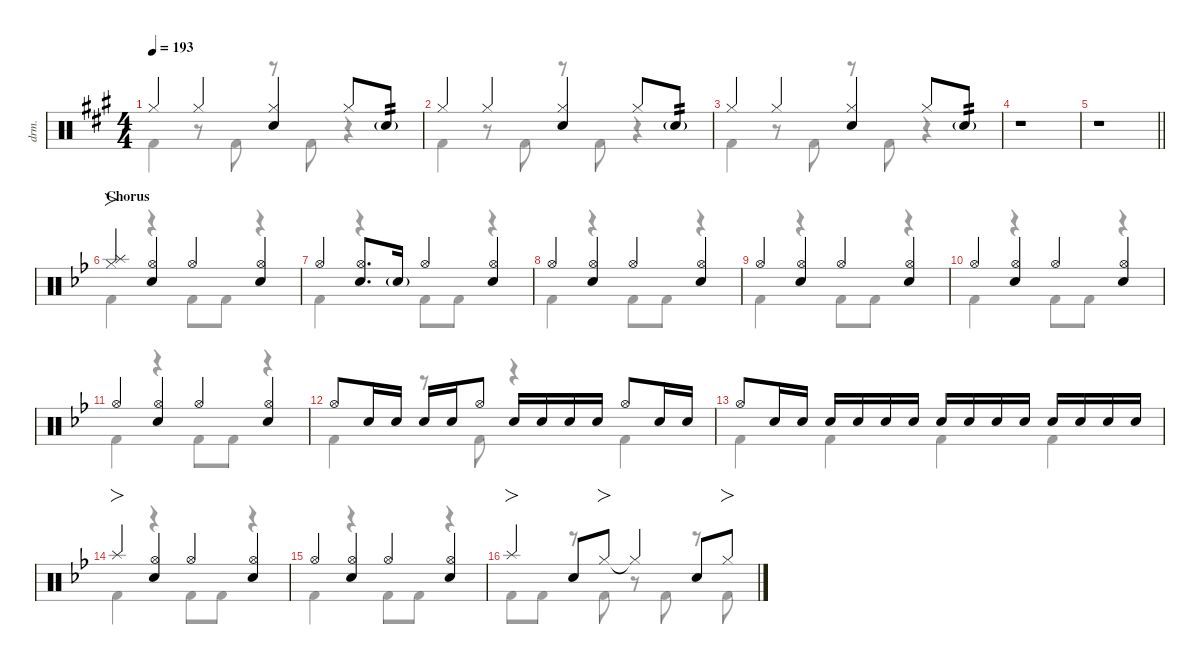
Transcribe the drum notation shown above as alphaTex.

\defaultSystemsLayout 4
\hideDynamics
\bracketExtendMode nobrackets
\track ("伊地知虹夏" "drm.") {instrument percussion}
\staff {score}
\articulation defaults
\voice
\ts (4 4)
\tempo 193
\clef neutral
\ks a "Hi-Hat (closed)"{acc forcenatural}.4{dy mf beam Up} "Hi-Hat (closed)"{acc forcenatural}.4{beam Up}
("Hi-Hat (closed)"{acc forcenatural} "Snare (hit) 2"{acc forcenatural}).4{beam Up} "Hi-Hat (closed)"{acc forcenatural}.8{beam Up} "Snare (hit) 2"{g acc forcenatural}.8{tp 2 beam Up} |
"Hi-Hat (closed)"{acc forcenatural}.4{beam Up} "Hi-Hat (closed)"{acc forcenatural}.4{beam Up} ("Hi-Hat (closed)"{acc forcenatural} "Snare (hit) 2"{acc forcenatural}).4{beam Up} "Hi-Hat (closed)"{acc forcenatural}.8{beam Up} "Snare (hit) 2"{g acc forcenatural}.8{tp 2 beam Up} |
"Hi-Hat (closed)"{acc forcenatural}.4{beam Up} "Hi-Hat (closed)"{acc forcenatural}.4{beam Up} ("Hi-Hat (closed)"{acc forcenatural} "Snare (hit) 2"{acc forcenatural}).4{beam Up} "Hi-Hat (closed)"{acc forcenatural}.8{beam Up} "Snare (hit) 2"{g acc forcenatural}.8{tp 2 beam Up} |
r.1{beam Up} |
\barLineRight lightlight
r.1{beam Up} |
\section ("" "Chorus")
\ks bb
("Hi-Hat (closed)"{acc forcenatural} "Splash (hit)"{acc forcenatural}).4{fo beam Up} ("Hi-Hat (open)"{acc forcenatural} "Snare (hit) 2"{acc forcenatural}).4{beam Up} "Hi-Hat (open)"{acc forcenatural}.4{beam Up} ("Hi-Hat (open)"{acc forcenatural} "Snare (hit) 2"{acc forcenatural}).4{beam Up} |
"Hi-Hat (open)"{acc forcenatural}.4{beam Up} ("Hi-Hat (open)"{acc forcenatural} "Snare (hit) 2"{acc forcenatural}).8{d beam Up} "Snare (hit) 2"{g acc forcenatural}.16{beam Up} "Hi-Hat (open)"{acc forcenatural}.4{beam Up} ("Hi-Hat (open)"{acc forcenatural} "Snare (hit) 2"{acc forcenatural}).4{beam Up} |
"Hi-Hat (open)"{acc forcenatural}.4{beam Up} ("Hi-Hat (open)"{acc forcenatural} "Snare (hit) 2"{acc forcenatural}).4{beam Up} "Hi-Hat (open)"{acc forcenatural}.4{beam Up} ("Hi-Hat (open)"{acc forcenatural} "Snare (hit) 2"{acc forcenatural}).4{beam Up} |
"Hi-Hat (open)"{acc forcenatural}.4{beam Up} ("Hi-Hat (open)"{acc forcenatural} "Snare (hit) 2"{acc forcenatural}).4{beam Up} "Hi-Hat (open)"{acc forcenatural}.4{beam Up} ("Hi-Hat (open)"{acc forcenatural} "Snare (hit) 2"{acc forcenatural}).4{beam Up} |
"Hi-Hat (open)"{acc forcenatural}.4{beam Up} ("Hi-Hat (open)"{acc forcenatural} "Snare (hit) 2"{acc forcenatural}).4{beam Up} "Hi-Hat (open)"{acc forcenatural}.4{beam Up} ("Hi-Hat (open)"{acc forcenatural} "Snare (hit) 2"{acc forcenatural}).4{beam Up} |
"Hi-Hat (open)"{acc forcenatural}.4{beam Up} ("Hi-Hat (open)"{acc forcenatural} "Snare (hit) 2"{acc forcenatural}).4{beam Up} "Hi-Hat (open)"{acc forcenatural}.4{beam Up} ("Hi-Hat (open)"{acc forcenatural} "Snare (hit) 2"{acc forcenatural}).4{beam Up} |
"Hi-Hat (open)"{acc forcenatural}.8{beam Up} "Snare (hit) 2"{acc forcenatural}.16{beam Up} "Snare (hit) 2"{acc forcenatural}.16{beam Up} "Snare (hit) 2"{acc forcenatural}.16{beam Up} "Snare (hit) 2"{acc forcenatural}.16{beam Up} "Hi-Hat (open)"{acc forcenatural}.8{beam Up} "Snare (hit) 2"{acc forcenatural}.16{beam Up} "Snare (hit) 2"{acc forcenatural}.16{beam Up} "Snare (hit) 2"{acc forcenatural}.16{beam Up} "Snare (hit) 2"{acc forcenatural}.16{beam Up} "Hi-Hat (open)"{acc forcenatural}.8{beam Up} "Snare (hit) 2"{acc forcenatural}.16{beam Up} "Snare (hit) 2"{acc forcenatural}.16{beam Up} |
"Hi-Hat (open)"{acc forcenatural}.8{beam Up} "Snare (hit) 2"{acc forcenatural}.16{beam Up} "Snare (hit) 2"{acc forcenatural}.16{beam Up} "Snare (hit) 2"{acc forcenatural}.16{beam Up} "Snare (hit) 2"{acc forcenatural}.16{beam Up} "Snare (hit) 2"{acc forcenatural}.16{beam Up} "Snare (hit) 2"{acc forcenatural}.16{beam Up} "Snare (hit) 2"{acc forcenatural}.16{beam Up} "Snare (hit) 2"{acc forcenatural}.16{beam Up} "Snare (hit) 2"{acc forcenatural}.16{beam Up} "Snare (hit) 2"{acc forcenatural}.16{beam Up} "Snare (hit) 2"{acc forcenatural}.16{beam Up} "Snare (hit) 2"{acc forcenatural}.16{beam Up} "Snare (hit) 2"{acc forcenatural}.16{beam Up} "Snare (hit) 2"{acc forcenatural}.16{beam Up} |
"Splash (hit)"{acc forcenatural}.4{fo beam Up} ("Hi-Hat (open)"{acc forcenatural} "Snare (hit) 2"{acc forcenatural}).4{beam Up} "Hi-Hat (open)"{acc forcenatural}.4{beam Up} ("Hi-Hat (open)"{acc forcenatural} "Snare (hit) 2"{acc forcenatural}).4{beam Up} |
"Hi-Hat (open)"{acc forcenatural}.4{beam Up} ("Hi-Hat (open)"{acc forcenatural} "Snare (hit) 2"{acc forcenatural}).4{beam Up} "Hi-Hat (open)"{acc forcenatural}.4{beam Up} ("Hi-Hat (open)"{acc forcenatural} "Snare (hit) 2"{acc forcenatural}).4{beam Up} |
"Splash (hit)"{acc forcenatural}.4{fo beam Up} "Snare (hit) 2"{acc forcenatural}.8{beam Up} "Hi-Hat (closed)"{acc forcenatural}.8{fo beam Up} "Hi-Hat (closed)"{t acc forcenatural}.4{beam Up} "Snare (hit) 2"{acc forcenatural}.8{beam Up} "Hi-Hat (closed)"{acc forcenatural}.8{fo beam Up}
\voice
\clef neutral
\ottava regular
\simile none
\ks a "Kick (hit) 2"{acc forcenatural}.4{dy mf beam Down}
r.8{beam Down} "Kick (hit) 2"{acc forcenatural}.8{beam Down} r.8{beam Down} "Kick (hit) 2"{acc forcenatural}.8{beam Down} r.4{beam Down} |
"Kick (hit) 2"{acc forcenatural}.4{beam Down} r.8{beam Down} "Kick (hit) 2"{acc forcenatural}.8{beam Down} r.8{beam Down} "Kick (hit) 2"{acc forcenatural}.8{beam Down} r.4{beam Down} |
"Kick (hit) 2"{acc forcenatural}.4{beam Down} r.8{beam Down} "Kick (hit) 2"{acc forcenatural}.8{beam Down} r.8{beam Down} "Kick (hit) 2"{acc forcenatural}.8{beam Down} r.4{beam Down} |
r.1{beam Down} |
\barLineRight lightlight
r.1{beam Down} |
\ks bb "Kick (hit) 2"{acc forcenatural}.4{beam Down}
r.4{beam Down} "Kick (hit) 2"{acc forcenatural}.8{beam Down} "Kick (hit) 2"{acc forcenatural}.8{beam Down} r.4{beam Down} |
"Kick (hit) 2"{acc forcenatural}.4{beam Down} r.4{beam Down} "Kick (hit) 2"{acc forcenatural}.8{beam Down} "Kick (hit) 2"{acc forcenatural}.8{beam Down} r.4{beam Down} |
"Kick (hit) 2"{acc forcenatural}.4{beam Down} r.4{beam Down} "Kick (hit) 2"{acc forcenatural}.8{beam Down} "Kick (hit) 2"{acc forcenatural}.8{beam Down} r.4{beam Down} |
"Kick (hit) 2"{acc forcenatural}.4{beam Down} r.4{beam Down} "Kick (hit) 2"{acc forcenatural}.8{beam Down} "Kick (hit) 2"{acc forcenatural}.8{beam Down} r.4{beam Down} |
"Kick (hit) 2"{acc forcenatural}.4{beam Down} r.4{beam Down} "Kick (hit) 2"{acc forcenatural}.8{beam Down} "Kick (hit) 2"{acc forcenatural}.8{beam Down} r.4{beam Down} |
"Kick (hit) 2"{acc forcenatural}.4{beam Down} r.4{beam Down} "Kick (hit) 2"{acc forcenatural}.8{beam Down} "Kick (hit) 2"{acc forcenatural}.8{beam Down} r.4{beam Down} |
"Kick (hit) 2"{acc forcenatural}.4{beam Down} r.8{beam Down} "Kick (hit) 2"{acc forcenatural}.8{beam Down} r.4{beam Down} "Kick (hit) 2"{acc forcenatural}.4{beam Down} |
"Kick (hit) 2"{acc forcenatural}.4{beam Down} "Kick (hit) 2"{acc forcenatural}.4{beam Down} "Kick (hit) 2"{acc forcenatural}.4{beam Down} "Kick (hit) 2"{acc forcenatural}.4{beam Down} |
"Kick (hit) 2"{acc forcenatural}.4{beam Down} r.4{beam Down} "Kick (hit) 2"{acc forcenatural}.8{beam Down} "Kick (hit) 2"{acc forcenatural}.8{beam Down} r.4{beam Down} |
"Kick (hit) 2"{acc forcenatural}.4{beam Down} r.4{beam Down} "Kick (hit) 2"{acc forcenatural}.8{beam Down} "Kick (hit) 2"{acc forcenatural}.8{beam Down} r.4{beam Down} |
"Kick (hit) 2"{acc forcenatural}.8{beam Down} "Kick (hit) 2"{acc forcenatural}.8{beam Down} r.8{beam Down} "Kick (hit) 2"{acc forcenatural}.8{beam Down} r.8{beam Down} "Kick (hit) 2"{acc forcenatural}.8{beam Down} r.8{beam Down} "Kick (hit) 2"{acc forcenatural}.8{beam Down}
